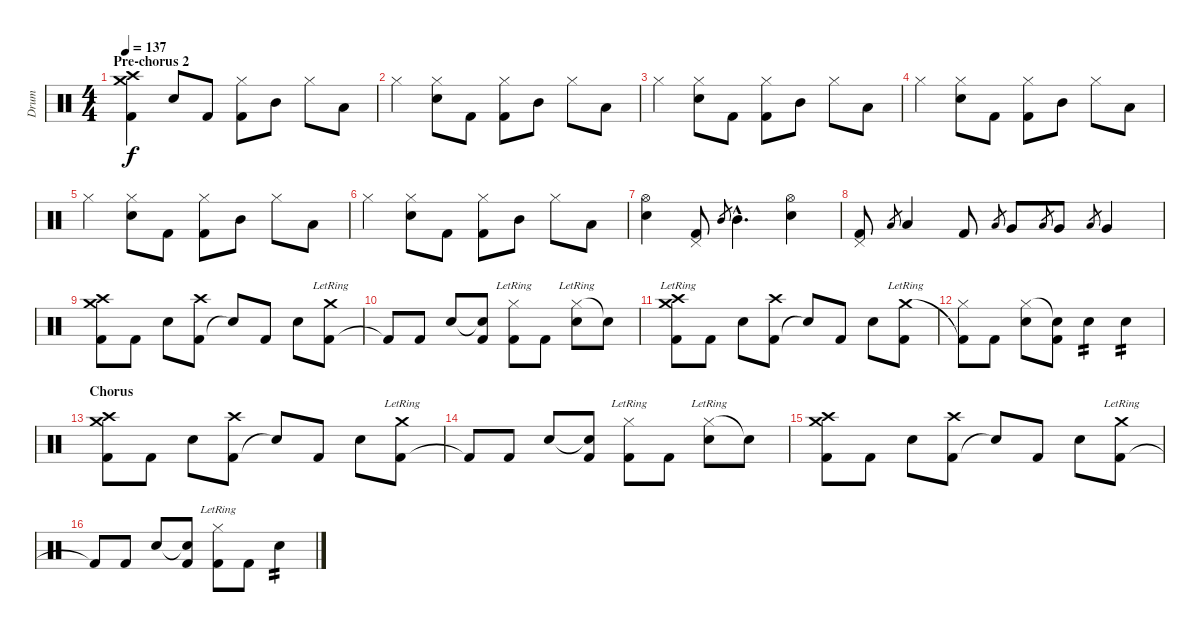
\track ("Drum" "Drum") {instrument percussion}
\staff {score}
\articulation defaults
\ts (4 4)
\section ("" "Pre-chorus 2")
\tempo 137
\clef neutral
\ks c
("Kick (hit) 2" "Crash high (hit)" "Crash medium (hit)").4{dy f} "Electric Snare (hit)".8 "Kick (hit) 2".8 ("Hi-Hat (closed)" "Kick (hit) 2").8 "Mid Tom (hit)".8 "Hi-Hat (closed)".8 "Low Tom (hit)".8 |
"Hi-Hat (closed)".4 ("Hi-Hat (closed)" "Electric Snare (hit)").8 "Kick (hit) 2".8 ("Hi-Hat (closed)" "Kick (hit) 2").8 "Mid Tom (hit)".8 "Hi-Hat (closed)".8 "Low Tom (hit)".8 |
"Hi-Hat (closed)".4 ("Hi-Hat (closed)" "Electric Snare (hit)").8 "Kick (hit) 2".8 ("Hi-Hat (closed)" "Kick (hit) 2").8 "Mid Tom (hit)".8 "Hi-Hat (closed)".8 "Low Tom (hit)".8 |
"Hi-Hat (closed)".4 ("Hi-Hat (closed)" "Electric Snare (hit)").8 "Kick (hit) 2".8 ("Hi-Hat (closed)" "Kick (hit) 2").8 "Mid Tom (hit)".8 "Hi-Hat (closed)".8 "Low Tom (hit)".8 |
"Hi-Hat (closed)".4 ("Hi-Hat (closed)" "Electric Snare (hit)").8 "Kick (hit) 2".8 ("Hi-Hat (closed)" "Kick (hit) 2").8 "Mid Tom (hit)".8 "Hi-Hat (closed)".8 "Low Tom (hit)".8 |
"Hi-Hat (closed)".4 ("Hi-Hat (closed)" "Electric Snare (hit)").8 "Kick (hit) 2".8 ("Hi-Hat (closed)" "Kick (hit) 2").8 "Mid Tom (hit)".8 "Hi-Hat (closed)".8 "Low Tom (hit)".8 |
("Hi-Hat (open)" "Electric Snare (hit)").4 ("Pedal Hi-Hat (hit)" "Kick (hit) 2").8 "Mid Tom (hit)".8{gr} "Mid Tom (hit)"{hac}.4{d} ("Hi-Hat (open)" "Electric Snare (hit)").4 |
("Pedal Hi-Hat (hit)" "Kick (hit) 2").8 "Low Tom (hit)".8{gr} "Low Tom (hit)".4 "Kick (hit) 2".8 "Low Floor Tom (hit)".8{gr} "Very Low Tom (hit)".8 "Low Floor Tom (hit)".8{gr} "Very Low Tom (hit)".8 "Low Floor Tom (hit)".8{gr} "Very Low Tom (hit)".4 |
("Kick (hit) 2" "Crash high (hit)" "Crash medium (hit)").8 "Kick (hit) 2".8 "Electric Snare (hit)".8 ("Kick (hit) 2" "Crash high (hit)").8 "Snare (hit)"{t}.8 "Kick (hit) 2".8 "Electric Snare (hit)".8 ("Kick (hit) 2" "Crash medium (hit)"{lr}).8 |
"Kick (hit) 2"{t}.8 "Kick (hit) 2".8 "Electric Snare (hit)".8 ("Snare (hit)"{t} "Kick (hit) 2").8 ("Hi-Hat (closed)"{lr} "Kick (hit) 2").8 "Kick (hit) 2".8 ("Hi-Hat (closed)"{lr} "Electric Snare (hit)"{lr}).8 "Snare (hit)"{t}.8 |
("Kick (hit) 2" "Crash high (hit)"{lr} "Crash medium (hit)"{lr}).8 "Kick (hit) 2".8 "Electric Snare (hit)".8 ("Kick (hit) 2" "Crash high (hit)").8 "Snare (hit)"{t}.8 "Kick (hit) 2".8 "Electric Snare (hit)".8 ("Kick (hit) 2" "Crash medium (hit)"{lr}).8 |
("Hi-Hat (closed)" "Kick (hit) 2"{t}).8 "Kick (hit) 2".8 ("Hi-Hat (closed)" "Electric Snare (hit)").8 ("Snare (hit)"{t} "Kick (hit) 2").8 "Electric Snare (hit)".4{tp 2} "Electric Snare (hit)".4{tp 2} |
\section ("" "Chorus")
("Kick (hit) 2" "Crash high (hit)" "Crash medium (hit)").8 "Kick (hit) 2".8 "Electric Snare (hit)".8 ("Kick (hit) 2" "Crash high (hit)").8 "Snare (hit)"{t}.8 "Kick (hit) 2".8 "Electric Snare (hit)".8 ("Kick (hit) 2" "Crash medium (hit)"{lr}).8 |
"Kick (hit) 2"{t}.8 "Kick (hit) 2".8 "Electric Snare (hit)".8 ("Snare (hit)"{t} "Kick (hit) 2").8 ("Hi-Hat (closed)"{lr} "Kick (hit) 2").8 "Kick (hit) 2".8 ("Hi-Hat (closed)"{lr} "Electric Snare (hit)"{lr}).8 "Snare (hit)"{t}.8 |
("Kick (hit) 2" "Crash high (hit)" "Crash medium (hit)").8 "Kick (hit) 2".8 "Electric Snare (hit)".8 ("Kick (hit) 2" "Crash high (hit)").8 "Snare (hit)"{t}.8 "Kick (hit) 2".8 "Electric Snare (hit)".8 ("Kick (hit) 2" "Crash medium (hit)"{lr}).8 |
"Kick (hit) 2"{t}.8 "Kick (hit) 2".8 "Electric Snare (hit)".8 ("Snare (hit)"{t} "Kick (hit) 2").8 ("Hi-Hat (closed)"{lr} "Kick (hit) 2").8 "Kick (hit) 2".8 "Electric Snare (hit)".4{tp 2}
